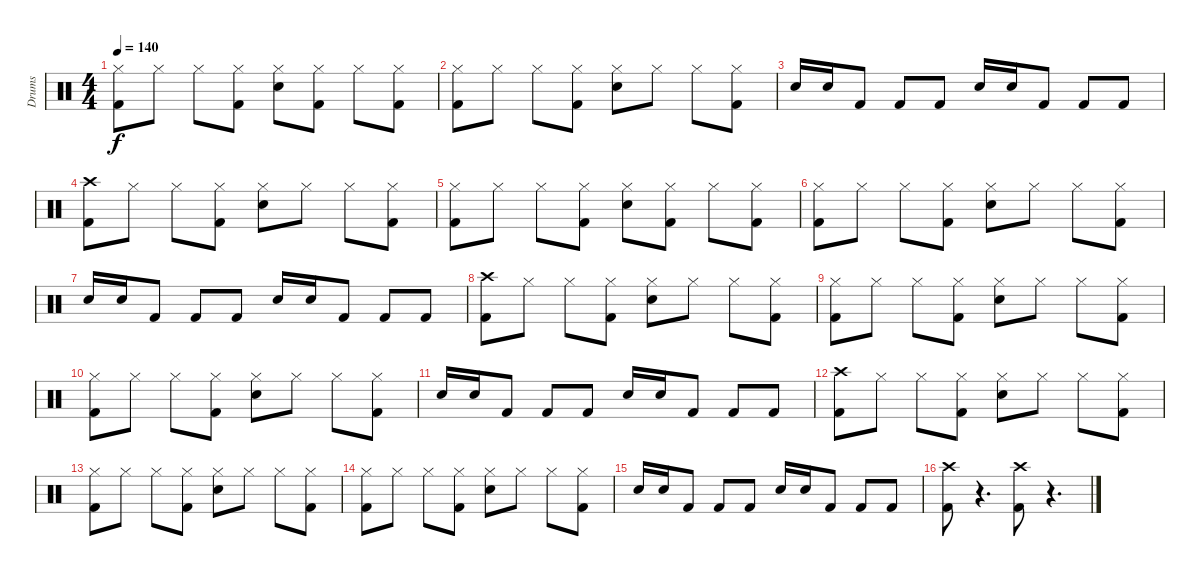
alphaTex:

\track ("Drums" "Drums") {instrument percussion}
\staff {score}
\articulation defaults
\ts (4 4)
\tempo 140
\clef neutral
\ks c
("Kick (hit) 2" "Hi-Hat (closed)").8{dy f} "Hi-Hat (closed)".8 "Hi-Hat (closed)".8 ("Kick (hit) 2" "Hi-Hat (closed)").8 ("Snare (hit) 2" "Hi-Hat (closed)").8 ("Kick (hit) 2" "Hi-Hat (closed)").8 "Hi-Hat (closed)".8 ("Kick (hit) 2" "Hi-Hat (closed)").8 |
("Kick (hit) 2" "Hi-Hat (closed)").8 "Hi-Hat (closed)".8 "Hi-Hat (closed)".8 ("Kick (hit) 2" "Hi-Hat (closed)").8 ("Snare (hit) 2" "Hi-Hat (closed)").8 "Hi-Hat (closed)".8 "Hi-Hat (closed)".8 ("Kick (hit) 2" "Hi-Hat (closed)").8 |
"Snare (hit) 2".16 "Snare (hit) 2".16 "Kick (hit) 2".8 "Kick (hit) 2".8 "Kick (hit) 2".8 "Snare (hit) 2".16 "Snare (hit) 2".16 "Kick (hit) 2".8 "Kick (hit) 2".8 "Kick (hit) 2".8 |
("Kick (hit) 2" "Crash high (hit)").8 "Hi-Hat (closed)".8 "Hi-Hat (closed)".8 ("Kick (hit) 2" "Hi-Hat (closed)").8 ("Snare (hit) 2" "Hi-Hat (closed)").8 "Hi-Hat (closed)".8 "Hi-Hat (closed)".8 ("Kick (hit) 2" "Hi-Hat (closed)").8 |
("Kick (hit) 2" "Hi-Hat (closed)").8 "Hi-Hat (closed)".8 "Hi-Hat (closed)".8 ("Kick (hit) 2" "Hi-Hat (closed)").8 ("Snare (hit) 2" "Hi-Hat (closed)").8 ("Kick (hit) 2" "Hi-Hat (closed)").8 "Hi-Hat (closed)".8 ("Kick (hit) 2" "Hi-Hat (closed)").8 |
("Kick (hit) 2" "Hi-Hat (closed)").8 "Hi-Hat (closed)".8 "Hi-Hat (closed)".8 ("Kick (hit) 2" "Hi-Hat (closed)").8 ("Snare (hit) 2" "Hi-Hat (closed)").8 "Hi-Hat (closed)".8 "Hi-Hat (closed)".8 ("Kick (hit) 2" "Hi-Hat (closed)").8 |
"Snare (hit) 2".16 "Snare (hit) 2".16 "Kick (hit) 2".8 "Kick (hit) 2".8 "Kick (hit) 2".8 "Snare (hit) 2".16 "Snare (hit) 2".16 "Kick (hit) 2".8 "Kick (hit) 2".8 "Kick (hit) 2".8 |
("Kick (hit) 2" "Crash high (hit)").8 "Hi-Hat (closed)".8 "Hi-Hat (closed)".8 ("Kick (hit) 2" "Hi-Hat (closed)").8 ("Snare (hit) 2" "Hi-Hat (closed)").8 "Hi-Hat (closed)".8 "Hi-Hat (closed)".8 ("Kick (hit) 2" "Hi-Hat (closed)").8 |
("Kick (hit) 2" "Hi-Hat (closed)").8 "Hi-Hat (closed)".8 "Hi-Hat (closed)".8 ("Kick (hit) 2" "Hi-Hat (closed)").8 ("Snare (hit) 2" "Hi-Hat (closed)").8 "Hi-Hat (closed)".8 "Hi-Hat (closed)".8 ("Kick (hit) 2" "Hi-Hat (closed)").8 |
("Kick (hit) 2" "Hi-Hat (closed)").8 "Hi-Hat (closed)".8 "Hi-Hat (closed)".8 ("Kick (hit) 2" "Hi-Hat (closed)").8 ("Snare (hit) 2" "Hi-Hat (closed)").8 "Hi-Hat (closed)".8 "Hi-Hat (closed)".8 ("Kick (hit) 2" "Hi-Hat (closed)").8 |
"Snare (hit) 2".16 "Snare (hit) 2".16 "Kick (hit) 2".8 "Kick (hit) 2".8 "Kick (hit) 2".8 "Snare (hit) 2".16 "Snare (hit) 2".16 "Kick (hit) 2".8 "Kick (hit) 2".8 "Kick (hit) 2".8 |
("Kick (hit) 2" "Crash high (hit)").8 "Hi-Hat (closed)".8 "Hi-Hat (closed)".8 ("Kick (hit) 2" "Hi-Hat (closed)").8 ("Snare (hit) 2" "Hi-Hat (closed)").8 "Hi-Hat (closed)".8 "Hi-Hat (closed)".8 ("Kick (hit) 2" "Hi-Hat (closed)").8 |
("Kick (hit) 2" "Hi-Hat (closed)").8 "Hi-Hat (closed)".8 "Hi-Hat (closed)".8 ("Kick (hit) 2" "Hi-Hat (closed)").8 ("Snare (hit) 2" "Hi-Hat (closed)").8 "Hi-Hat (closed)".8 "Hi-Hat (closed)".8 ("Kick (hit) 2" "Hi-Hat (closed)").8 |
("Kick (hit) 2" "Hi-Hat (closed)").8 "Hi-Hat (closed)".8 "Hi-Hat (closed)".8 ("Kick (hit) 2" "Hi-Hat (closed)").8 ("Snare (hit) 2" "Hi-Hat (closed)").8 "Hi-Hat (closed)".8 "Hi-Hat (closed)".8 ("Kick (hit) 2" "Hi-Hat (closed)").8 |
"Snare (hit) 2".16 "Snare (hit) 2".16 "Kick (hit) 2".8 "Kick (hit) 2".8 "Kick (hit) 2".8 "Snare (hit) 2".16 "Snare (hit) 2".16 "Kick (hit) 2".8 "Kick (hit) 2".8 "Kick (hit) 2".8 |
("Kick (hit) 2" "Crash high (hit)").8 r.4{d} ("Kick (hit) 2" "Crash high (hit)").8 r.4{d}
